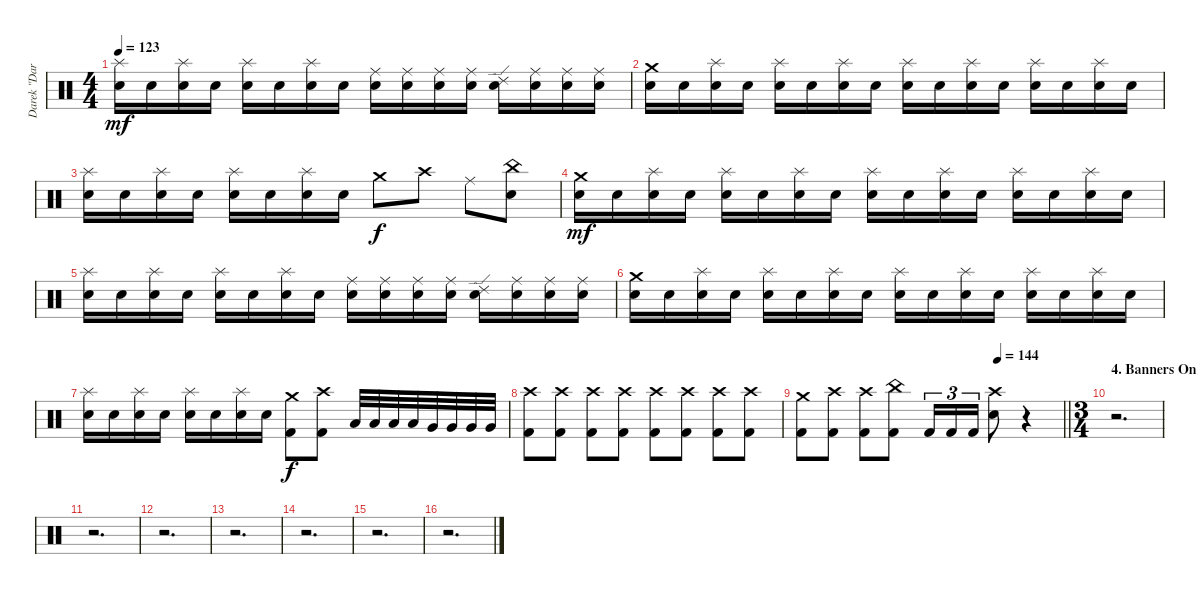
\track ("Darek \"Daray\" Brzozowski " "Darek \"Dar") {instrument percussion}
\staff {score}
\articulation defaults
\ts (4 4)
\tempo 123
\clef neutral
\ks c
("Splash (hit)" "Electric Snare (hit)").16{dy mf} "Electric Snare (hit)".16 ("Splash (hit)" "Electric Snare (hit)").16 "Electric Snare (hit)".16 ("Splash (hit)" "Electric Snare (hit)").16 "Electric Snare (hit)".16 ("Splash (hit)" "Electric Snare (hit)").16 "Electric Snare (hit)".16 ("Ride (middle)" "Electric Snare (hit)").16 ("Ride (middle)" "Electric Snare (hit)").16 ("Ride (middle)" "Electric Snare (hit)").16 ("Ride (middle)" "Electric Snare (hit)").16 ("Ride (edge) 2" "Electric Snare (hit)").16 ("Ride (middle)" "Electric Snare (hit)").16 ("Ride (middle)" "Electric Snare (hit)").16 ("Ride (middle)" "Electric Snare (hit)").16 |
("Crash medium (hit)" "Electric Snare (hit)").16 "Electric Snare (hit)".16 ("Splash (hit)" "Electric Snare (hit)").16 "Electric Snare (hit)".16 ("Splash (hit)" "Electric Snare (hit)").16 "Electric Snare (hit)".16 ("Splash (hit)" "Electric Snare (hit)").16 "Electric Snare (hit)".16 ("Splash (hit)" "Electric Snare (hit)").16 "Electric Snare (hit)".16 ("Splash (hit)" "Electric Snare (hit)").16 "Electric Snare (hit)".16 ("Splash (hit)" "Electric Snare (hit)").16 "Electric Snare (hit)".16 ("Splash (hit)" "Electric Snare (hit)").16 "Electric Snare (hit)".16 |
("Splash (hit)" "Electric Snare (hit)").16 "Electric Snare (hit)".16 ("Splash (hit)" "Electric Snare (hit)").16 "Electric Snare (hit)".16 ("Splash (hit)" "Electric Snare (hit)").16 "Electric Snare (hit)".16 ("Splash (hit)" "Electric Snare (hit)").16 "Electric Snare (hit)".16 "Crash medium (hit)".8{dy f} "Crash high (hit)".8 "Ride (middle)".8 ("China (hit)" "Electric Snare (hit)").8 |
("Crash medium (hit)" "Electric Snare (hit)").16{dy mf} "Electric Snare (hit)".16 ("Splash (hit)" "Electric Snare (hit)").16 "Electric Snare (hit)".16 ("Splash (hit)" "Electric Snare (hit)").16 "Electric Snare (hit)".16 ("Splash (hit)" "Electric Snare (hit)").16 "Electric Snare (hit)".16 ("Splash (hit)" "Electric Snare (hit)").16 "Electric Snare (hit)".16 ("Splash (hit)" "Electric Snare (hit)").16 "Electric Snare (hit)".16 ("Splash (hit)" "Electric Snare (hit)").16 "Electric Snare (hit)".16 ("Splash (hit)" "Electric Snare (hit)").16 "Electric Snare (hit)".16 |
("Splash (hit)" "Electric Snare (hit)").16 "Electric Snare (hit)".16 ("Splash (hit)" "Electric Snare (hit)").16 "Electric Snare (hit)".16 ("Splash (hit)" "Electric Snare (hit)").16 "Electric Snare (hit)".16 ("Splash (hit)" "Electric Snare (hit)").16 "Electric Snare (hit)".16 ("Ride (middle)" "Electric Snare (hit)").16 ("Ride (middle)" "Electric Snare (hit)").16 ("Ride (middle)" "Electric Snare (hit)").16 ("Ride (middle)" "Electric Snare (hit)").16 ("Ride (edge) 2" "Electric Snare (hit)").16 ("Ride (middle)" "Electric Snare (hit)").16 ("Ride (middle)" "Electric Snare (hit)").16 ("Ride (middle)" "Electric Snare (hit)").16 |
("Crash medium (hit)" "Electric Snare (hit)").16 "Electric Snare (hit)".16 ("Splash (hit)" "Electric Snare (hit)").16 "Electric Snare (hit)".16 ("Splash (hit)" "Electric Snare (hit)").16 "Electric Snare (hit)".16 ("Splash (hit)" "Electric Snare (hit)").16 "Electric Snare (hit)".16 ("Splash (hit)" "Electric Snare (hit)").16 "Electric Snare (hit)".16 ("Splash (hit)" "Electric Snare (hit)").16 "Electric Snare (hit)".16 ("Splash (hit)" "Electric Snare (hit)").16 "Electric Snare (hit)".16 ("Splash (hit)" "Electric Snare (hit)").16 "Electric Snare (hit)".16 |
("Splash (hit)" "Electric Snare (hit)").16 "Electric Snare (hit)".16 ("Splash (hit)" "Electric Snare (hit)").16 "Electric Snare (hit)".16 ("Splash (hit)" "Electric Snare (hit)").16 "Electric Snare (hit)".16 ("Splash (hit)" "Electric Snare (hit)").16 "Electric Snare (hit)".16 ("Crash medium (hit)" "Kick (hit) 2").8{dy f} ("Crash high (hit)" "Kick (hit) 2").8 "Low Tom (hit)".32 "Low Tom (hit)".32 "Low Tom (hit)".32 "Low Tom (hit)".32 "Very Low Tom (hit)".32 "Very Low Tom (hit)".32 "Very Low Tom (hit)".32 "Very Low Tom (hit)".32 |
("Crash high (hit)" "Kick (hit) 2").8 ("Crash high (hit)" "Kick (hit) 2").8 ("Crash high (hit)" "Kick (hit) 2").8 ("Crash high (hit)" "Kick (hit) 2").8 ("Crash high (hit)" "Kick (hit) 2").8 ("Crash high (hit)" "Kick (hit) 2").8 ("Crash high (hit)" "Kick (hit) 2").8 ("Crash high (hit)" "Kick (hit) 2").8 |
\tempo (144 0.75)
\barLineRight lightlight
("Crash medium (hit)" "Kick (hit) 2").8 ("Crash high (hit)" "Kick (hit) 2").8 ("Crash high (hit)" "Kick (hit) 2").8 ("China (hit)" "Kick (hit) 2").8 "Kick (hit) 2".16{tu (3 2)} "Kick (hit) 2".16{tu (3 2)} "Kick (hit) 2".16{tu (3 2)} ("Crash high (hit)" "Electric Snare (hit)").8 r.4 |
\ts (3 4)
\section ("" "4. Banners On The Wind")
r.2{d} |
r.2{d} |
r.2{d} |
r.2{d} |
r.2{d} |
r.2{d} |
r.2{d}
